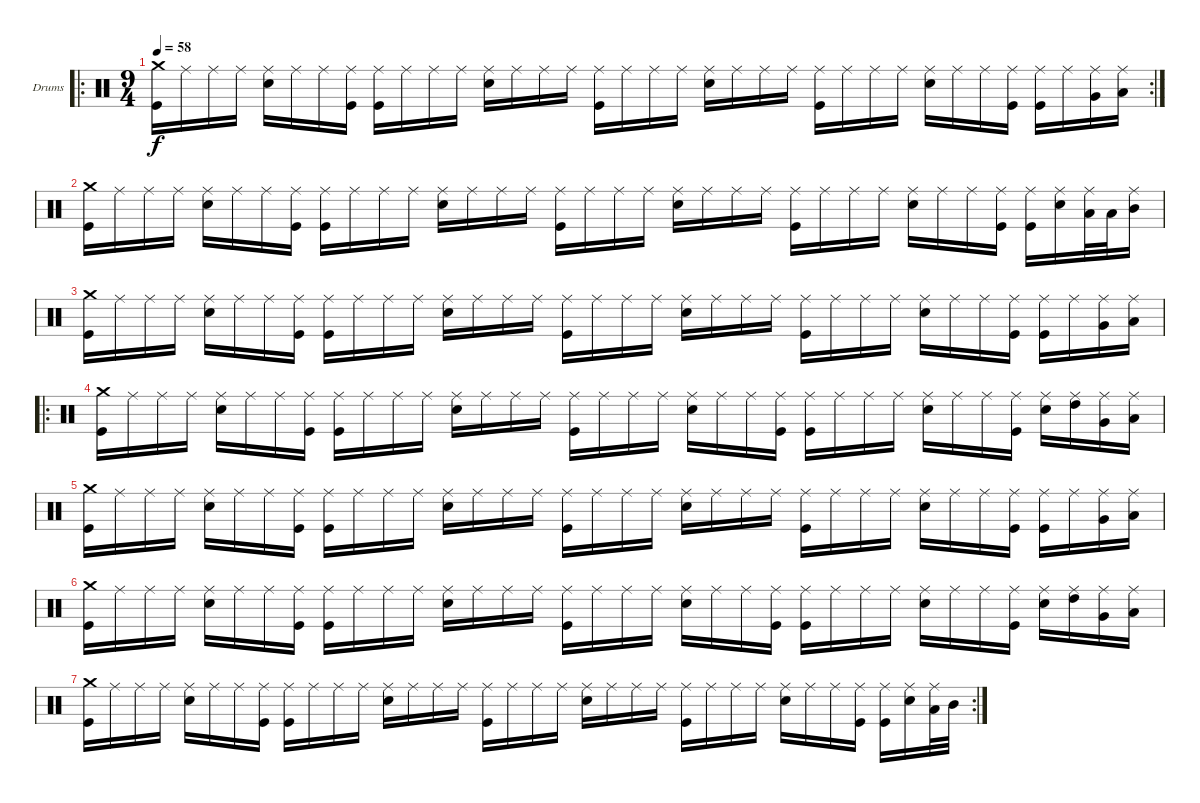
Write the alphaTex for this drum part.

\defaultSystemsLayout 4
\bracketExtendMode groupsimilarinstruments
\firstSystemTrackNameOrientation horizontal
\otherSystemsTrackNameOrientation horizontal
\track ("Drumkit" "Drums") {instrument percussion}
\staff {score}
\articulation defaults
\ro
\rc 2
\ts (9 4)
\tempo 58
\clef neutral
\scale
0.385417
\ks c
("Crash medium (hit)" "Kick (hit)").16{dy f} "Ride (middle)".16 "Ride (middle)".16 "Ride (middle)".16 ("Ride (middle)" "Snare (hit) 2").16 "Ride (middle)".16 "Ride (middle)".16 ("Ride (middle)" "Kick (hit)").16 ("Ride (middle)" "Kick (hit)").16 "Ride (middle)".16 "Ride (middle)".16 "Ride (middle)".16 ("Ride (middle)" "Snare (hit) 2").16 "Ride (middle)".16 "Ride (middle)".16 "Ride (middle)".16 ("Ride (middle)" "Kick (hit)").16 "Ride (middle)".16 "Ride (middle)".16 "Ride (middle)".16 ("Ride (middle)" "Snare (hit) 2").16 "Ride (middle)".16 "Ride (middle)".16 "Ride (middle)".16 ("Ride (middle)" "Kick (hit)").16 "Ride (middle)".16 "Ride (middle)".16 "Ride (middle)".16 ("Ride (middle)" "Snare (hit) 2").16 "Ride (middle)".16 "Ride (middle)".16 ("Ride (middle)" "Kick (hit)").16 ("Ride (middle)" "Kick (hit)").16 "Ride (middle)".16 ("Ride (middle)" "Very Low Tom (hit)").16 ("Ride (middle)" "Low Tom (hit)").16 |
\scale
0.311111 ("Crash medium (hit)" "Kick (hit)").16 "Ride (middle)".16 "Ride (middle)".16 "Ride (middle)".16 ("Ride (middle)" "Snare (hit) 2").16 "Ride (middle)".16 "Ride (middle)".16 ("Ride (middle)" "Kick (hit)").16 ("Ride (middle)" "Kick (hit)").16 "Ride (middle)".16 "Ride (middle)".16 "Ride (middle)".16 ("Ride (middle)" "Snare (hit) 2").16 "Ride (middle)".16 "Ride (middle)".16 "Ride (middle)".16 ("Ride (middle)" "Kick (hit)").16 "Ride (middle)".16 "Ride (middle)".16 "Ride (middle)".16 ("Ride (middle)" "Snare (hit) 2").16 "Ride (middle)".16 "Ride (middle)".16 "Ride (middle)".16 ("Ride (middle)" "Kick (hit)").16 "Ride (middle)".16 "Ride (middle)".16 "Ride (middle)".16 ("Ride (middle)" "Snare (hit) 2").16 "Ride (middle)".16 "Ride (middle)".16 ("Ride (middle)" "Kick (hit)").16 ("Ride (middle)" "Kick (hit)").16 ("Ride (middle)" "Snare (hit) 2").16 ("Ride (middle)" "Low Tom (hit)").32 "Low Tom (hit)".32 ("Ride (middle)" "Mid Tom (hit)").16 |
\scale
0.311111 ("Crash medium (hit)" "Kick (hit)").16 "Ride (middle)".16 "Ride (middle)".16 "Ride (middle)".16 ("Ride (middle)" "Snare (hit) 2").16 "Ride (middle)".16 "Ride (middle)".16 ("Ride (middle)" "Kick (hit)").16 ("Ride (middle)" "Kick (hit)").16 "Ride (middle)".16 "Ride (middle)".16 "Ride (middle)".16 ("Ride (middle)" "Snare (hit) 2").16 "Ride (middle)".16 "Ride (middle)".16 "Ride (middle)".16 ("Ride (middle)" "Kick (hit)").16 "Ride (middle)".16 "Ride (middle)".16 "Ride (middle)".16 ("Ride (middle)" "Snare (hit) 2").16 "Ride (middle)".16 "Ride (middle)".16 "Ride (middle)".16 ("Ride (middle)" "Kick (hit)").16 "Ride (middle)".16 "Ride (middle)".16 "Ride (middle)".16 ("Ride (middle)" "Snare (hit) 2").16 "Ride (middle)".16 "Ride (middle)".16 ("Ride (middle)" "Kick (hit)").16 ("Ride (middle)" "Kick (hit)").16 "Ride (middle)".16 ("Ride (middle)" "Very Low Tom (hit)").16 ("Ride (middle)" "Low Tom (hit)").16 |
\ro
\scale
0.377778 ("Crash medium (hit)" "Kick (hit)").16 "Ride (middle)".16 "Ride (middle)".16 "Ride (middle)".16 ("Ride (middle)" "Snare (hit) 2").16 "Ride (middle)".16 "Ride (middle)".16 ("Ride (middle)" "Kick (hit)").16 ("Ride (middle)" "Kick (hit)").16 "Ride (middle)".16 "Ride (middle)".16 "Ride (middle)".16 ("Ride (middle)" "Snare (hit) 2").16 "Ride (middle)".16 "Ride (middle)".16 "Ride (middle)".16 ("Ride (middle)" "Kick (hit)").16 "Ride (middle)".16 "Ride (middle)".16 "Ride (middle)".16 ("Ride (middle)" "Snare (hit) 2").16 "Ride (middle)".16 "Ride (middle)".16 ("Ride (middle)" "Kick (hit)").16 ("Ride (middle)" "Kick (hit)").16 "Ride (middle)".16 "Ride (middle)".16 "Ride (middle)".16 ("Ride (middle)" "Snare (hit) 2").16 "Ride (middle)".16 "Ride (middle)".16 ("Ride (middle)" "Kick (hit)").16 ("Ride (middle)" "Snare (hit) 2").16 ("Ride (middle)" "High Tom (hit)").16 ("Ride (middle)" "Very Low Tom (hit)").16 ("Ride (middle)" "Low Tom (hit)").16 |
\scale
0.321839 ("Crash medium (hit)" "Kick (hit)").16 "Ride (middle)".16 "Ride (middle)".16 "Ride (middle)".16 ("Ride (middle)" "Snare (hit) 2").16 "Ride (middle)".16 "Ride (middle)".16 ("Ride (middle)" "Kick (hit)").16 ("Ride (middle)" "Kick (hit)").16 "Ride (middle)".16 "Ride (middle)".16 "Ride (middle)".16 ("Ride (middle)" "Snare (hit) 2").16 "Ride (middle)".16 "Ride (middle)".16 "Ride (middle)".16 ("Ride (middle)" "Kick (hit)").16 "Ride (middle)".16 "Ride (middle)".16 "Ride (middle)".16 ("Ride (middle)" "Snare (hit) 2").16 "Ride (middle)".16 "Ride (middle)".16 "Ride (middle)".16 ("Ride (middle)" "Kick (hit)").16 "Ride (middle)".16 "Ride (middle)".16 "Ride (middle)".16 ("Ride (middle)" "Snare (hit) 2").16 "Ride (middle)".16 "Ride (middle)".16 ("Ride (middle)" "Kick (hit)").16 ("Ride (middle)" "Kick (hit)").16 "Ride (middle)".16 ("Ride (middle)" "Very Low Tom (hit)").16 ("Ride (middle)" "Low Tom (hit)").16 |
\scale
0.321839 ("Crash medium (hit)" "Kick (hit)").16 "Ride (middle)".16 "Ride (middle)".16 "Ride (middle)".16 ("Ride (middle)" "Snare (hit) 2").16 "Ride (middle)".16 "Ride (middle)".16 ("Ride (middle)" "Kick (hit)").16 ("Ride (middle)" "Kick (hit)").16 "Ride (middle)".16 "Ride (middle)".16 "Ride (middle)".16 ("Ride (middle)" "Snare (hit) 2").16 "Ride (middle)".16 "Ride (middle)".16 "Ride (middle)".16 ("Ride (middle)" "Kick (hit)").16 "Ride (middle)".16 "Ride (middle)".16 "Ride (middle)".16 ("Ride (middle)" "Snare (hit) 2").16 "Ride (middle)".16 "Ride (middle)".16 ("Ride (middle)" "Kick (hit)").16 ("Ride (middle)" "Kick (hit)").16 "Ride (middle)".16 "Ride (middle)".16 "Ride (middle)".16 ("Ride (middle)" "Snare (hit) 2").16 "Ride (middle)".16 "Ride (middle)".16 ("Ride (middle)" "Kick (hit)").16 ("Ride (middle)" "Snare (hit) 2").16 ("Ride (middle)" "High Tom (hit)").16 ("Ride (middle)" "Very Low Tom (hit)").16 ("Ride (middle)" "Low Tom (hit)").16 |
\rc 2
\scale
0.356322 ("Crash medium (hit)" "Kick (hit)").16 "Ride (middle)".16 "Ride (middle)".16 "Ride (middle)".16 ("Ride (middle)" "Snare (hit) 2").16 "Ride (middle)".16 "Ride (middle)".16 ("Ride (middle)" "Kick (hit)").16 ("Ride (middle)" "Kick (hit)").16 "Ride (middle)".16 "Ride (middle)".16 "Ride (middle)".16 ("Ride (middle)" "Snare (hit) 2").16 "Ride (middle)".16 "Ride (middle)".16 "Ride (middle)".16 ("Ride (middle)" "Kick (hit)").16 "Ride (middle)".16 "Ride (middle)".16 "Ride (middle)".16 ("Ride (middle)" "Snare (hit) 2").16 "Ride (middle)".16 "Ride (middle)".16 "Ride (middle)".16 ("Ride (middle)" "Kick (hit)").16 "Ride (middle)".16 "Ride (middle)".16 "Ride (middle)".16 ("Ride (middle)" "Snare (hit) 2").16 "Ride (middle)".16 "Ride (middle)".16 ("Ride (middle)" "Kick (hit)").16 ("Ride (middle)" "Kick (hit)").16 ("Ride (middle)" "Snare (hit) 2").16 ("Ride (middle)" "Low Tom (hit)").32 "Mid Tom (hit)".32 |
\scale
0.333333 |
\scale
0.333333 |
\scale
0.333333
